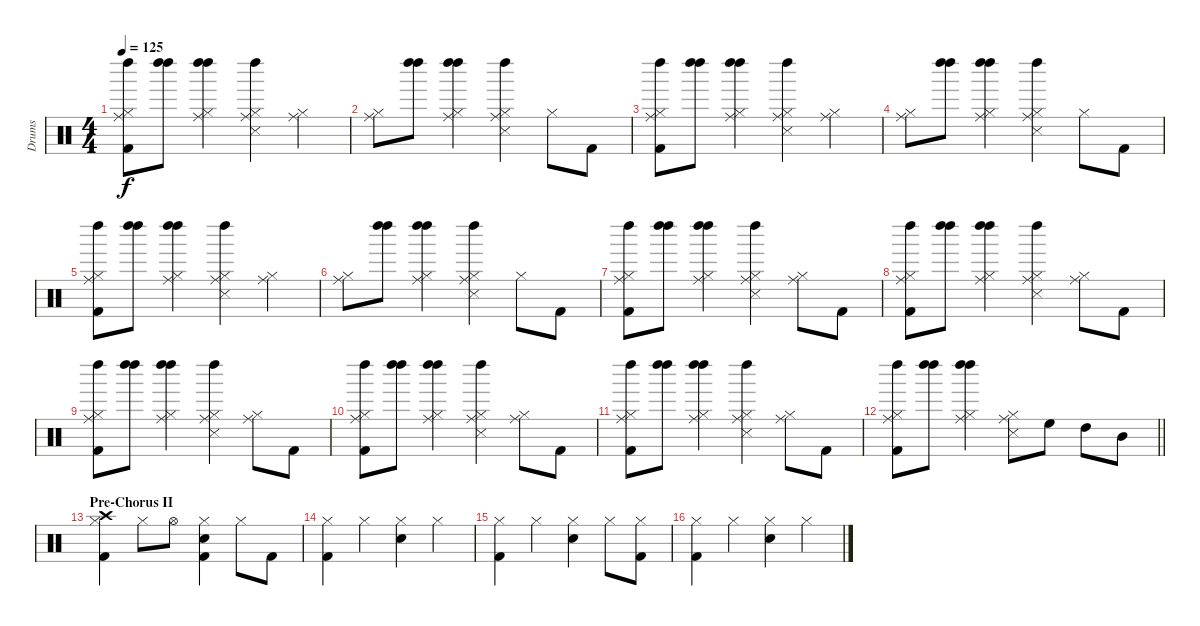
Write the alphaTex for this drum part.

\track ("Drums" "Drums") {instrument percussion}
\staff {score}
\articulation defaults
\ts (4 4)
\tempo 125
\clef neutral
\ks c
("Ride (middle)" "Hi-Hat (closed)" "Kick (hit) 2" "Left Maraca (hit)").8{dy f} ("Left Maraca (hit)" "Left Maraca (hit)").8 ("Ride (middle)" "Hi-Hat (closed)" "Left Maraca (hit)" "Left Maraca (hit)").4 ("Ride (middle)" "Hi-Hat (closed)" "Snare (side stick) 3" "Left Maraca (hit)").4 ("Ride (middle)" "Hi-Hat (closed)").4 |
("Ride (middle)" "Hi-Hat (closed)").8 ("Left Maraca (hit)" "Left Maraca (hit)").8 ("Ride (middle)" "Hi-Hat (closed)" "Left Maraca (hit)" "Left Maraca (hit)").4 ("Ride (middle)" "Hi-Hat (closed)" "Snare (side stick) 3" "Left Maraca (hit)").4 "Hi-Hat (closed)".8 "Kick (hit) 2".8 |
("Ride (middle)" "Hi-Hat (closed)" "Kick (hit) 2" "Left Maraca (hit)").8 ("Left Maraca (hit)" "Left Maraca (hit)").8 ("Ride (middle)" "Hi-Hat (closed)" "Left Maraca (hit)" "Left Maraca (hit)").4 ("Ride (middle)" "Hi-Hat (closed)" "Snare (side stick) 3" "Left Maraca (hit)").4 ("Ride (middle)" "Hi-Hat (closed)").4 |
("Ride (middle)" "Hi-Hat (closed)").8 ("Left Maraca (hit)" "Left Maraca (hit)").8 ("Ride (middle)" "Hi-Hat (closed)" "Left Maraca (hit)" "Left Maraca (hit)").4 ("Ride (middle)" "Hi-Hat (closed)" "Snare (side stick) 3" "Left Maraca (hit)").4 "Hi-Hat (closed)".8 "Kick (hit) 2".8 |
("Ride (middle)" "Hi-Hat (closed)" "Kick (hit) 2" "Left Maraca (hit)").8 ("Left Maraca (hit)" "Left Maraca (hit)").8 ("Ride (middle)" "Hi-Hat (closed)" "Left Maraca (hit)" "Left Maraca (hit)").4 ("Ride (middle)" "Hi-Hat (closed)" "Snare (side stick) 3" "Left Maraca (hit)").4 ("Ride (middle)" "Hi-Hat (closed)").4 |
("Ride (middle)" "Hi-Hat (closed)").8 ("Left Maraca (hit)" "Left Maraca (hit)").8 ("Ride (middle)" "Hi-Hat (closed)" "Left Maraca (hit)" "Left Maraca (hit)").4 ("Ride (middle)" "Hi-Hat (closed)" "Snare (side stick) 3" "Left Maraca (hit)").4 "Hi-Hat (closed)".8 "Kick (hit) 2".8 |
("Ride (middle)" "Hi-Hat (closed)" "Kick (hit) 2" "Left Maraca (hit)").8 ("Left Maraca (hit)" "Left Maraca (hit)").8 ("Ride (middle)" "Hi-Hat (closed)" "Left Maraca (hit)" "Left Maraca (hit)").4 ("Ride (middle)" "Hi-Hat (closed)" "Snare (side stick) 3" "Left Maraca (hit)").4 ("Ride (middle)" "Hi-Hat (closed)").8 "Kick (hit) 2".8 |
("Ride (middle)" "Hi-Hat (closed)" "Kick (hit) 2" "Left Maraca (hit)").8 ("Left Maraca (hit)" "Left Maraca (hit)").8 ("Ride (middle)" "Hi-Hat (closed)" "Left Maraca (hit)" "Left Maraca (hit)").4 ("Ride (middle)" "Hi-Hat (closed)" "Snare (side stick) 3" "Left Maraca (hit)").4 ("Ride (middle)" "Hi-Hat (closed)").8 "Kick (hit) 2".8 |
("Ride (middle)" "Hi-Hat (closed)" "Kick (hit) 2" "Left Maraca (hit)").8 ("Left Maraca (hit)" "Left Maraca (hit)").8 ("Ride (middle)" "Hi-Hat (closed)" "Left Maraca (hit)" "Left Maraca (hit)").4 ("Ride (middle)" "Hi-Hat (closed)" "Snare (side stick) 3" "Left Maraca (hit)").4 ("Ride (middle)" "Hi-Hat (closed)").8 "Kick (hit) 2".8 |
("Ride (middle)" "Hi-Hat (closed)" "Kick (hit) 2" "Left Maraca (hit)").8 ("Left Maraca (hit)" "Left Maraca (hit)").8 ("Ride (middle)" "Hi-Hat (closed)" "Left Maraca (hit)" "Left Maraca (hit)").4 ("Ride (middle)" "Hi-Hat (closed)" "Snare (side stick) 3" "Left Maraca (hit)").4 ("Ride (middle)" "Hi-Hat (closed)").8 "Kick (hit) 2".8 |
("Ride (middle)" "Hi-Hat (closed)" "Kick (hit) 2" "Left Maraca (hit)").8 ("Left Maraca (hit)" "Left Maraca (hit)").8 ("Ride (middle)" "Hi-Hat (closed)" "Left Maraca (hit)" "Left Maraca (hit)").4 ("Ride (middle)" "Hi-Hat (closed)" "Snare (side stick) 3" "Left Maraca (hit)").4 ("Ride (middle)" "Hi-Hat (closed)").8 "Kick (hit) 2".8 |
\barLineRight lightlight
("Ride (middle)" "Hi-Hat (closed)" "Kick (hit) 2" "Left Maraca (hit)").8 ("Left Maraca (hit)" "Left Maraca (hit)").8 ("Ride (middle)" "Hi-Hat (closed)" "Left Maraca (hit)" "Left Maraca (hit)").4 ("Ride (middle)" "Snare (side stick) 3" "Hi-Hat (closed)").8 "High Floor Tom (hit)".8 "High Tom (hit)".8 "Mid Tom (hit)".8 |
\section ("" "Pre-Chorus II")
("Crash high (hit)" "Hi-Hat (closed)" "Kick (hit) 2").4 "Hi-Hat (closed)".8 "Hi-Hat (open)".8 ("Hi-Hat (closed)" "Snare (hit) 2" "Kick (hit) 2").4 "Hi-Hat (closed)".8 "Kick (hit) 2".8 |
("Hi-Hat (closed)" "Kick (hit) 2").4 "Hi-Hat (closed)".4 ("Hi-Hat (closed)" "Snare (hit) 2").4 "Hi-Hat (closed)".4 |
("Hi-Hat (closed)" "Kick (hit) 2").4 "Hi-Hat (closed)".4 ("Hi-Hat (closed)" "Snare (hit) 2").4 "Hi-Hat (closed)".8 ("Hi-Hat (closed)" "Kick (hit) 2").8 |
("Hi-Hat (closed)" "Kick (hit) 2").4 "Hi-Hat (closed)".4 ("Hi-Hat (closed)" "Snare (hit) 2").4 "Hi-Hat (closed)".4
